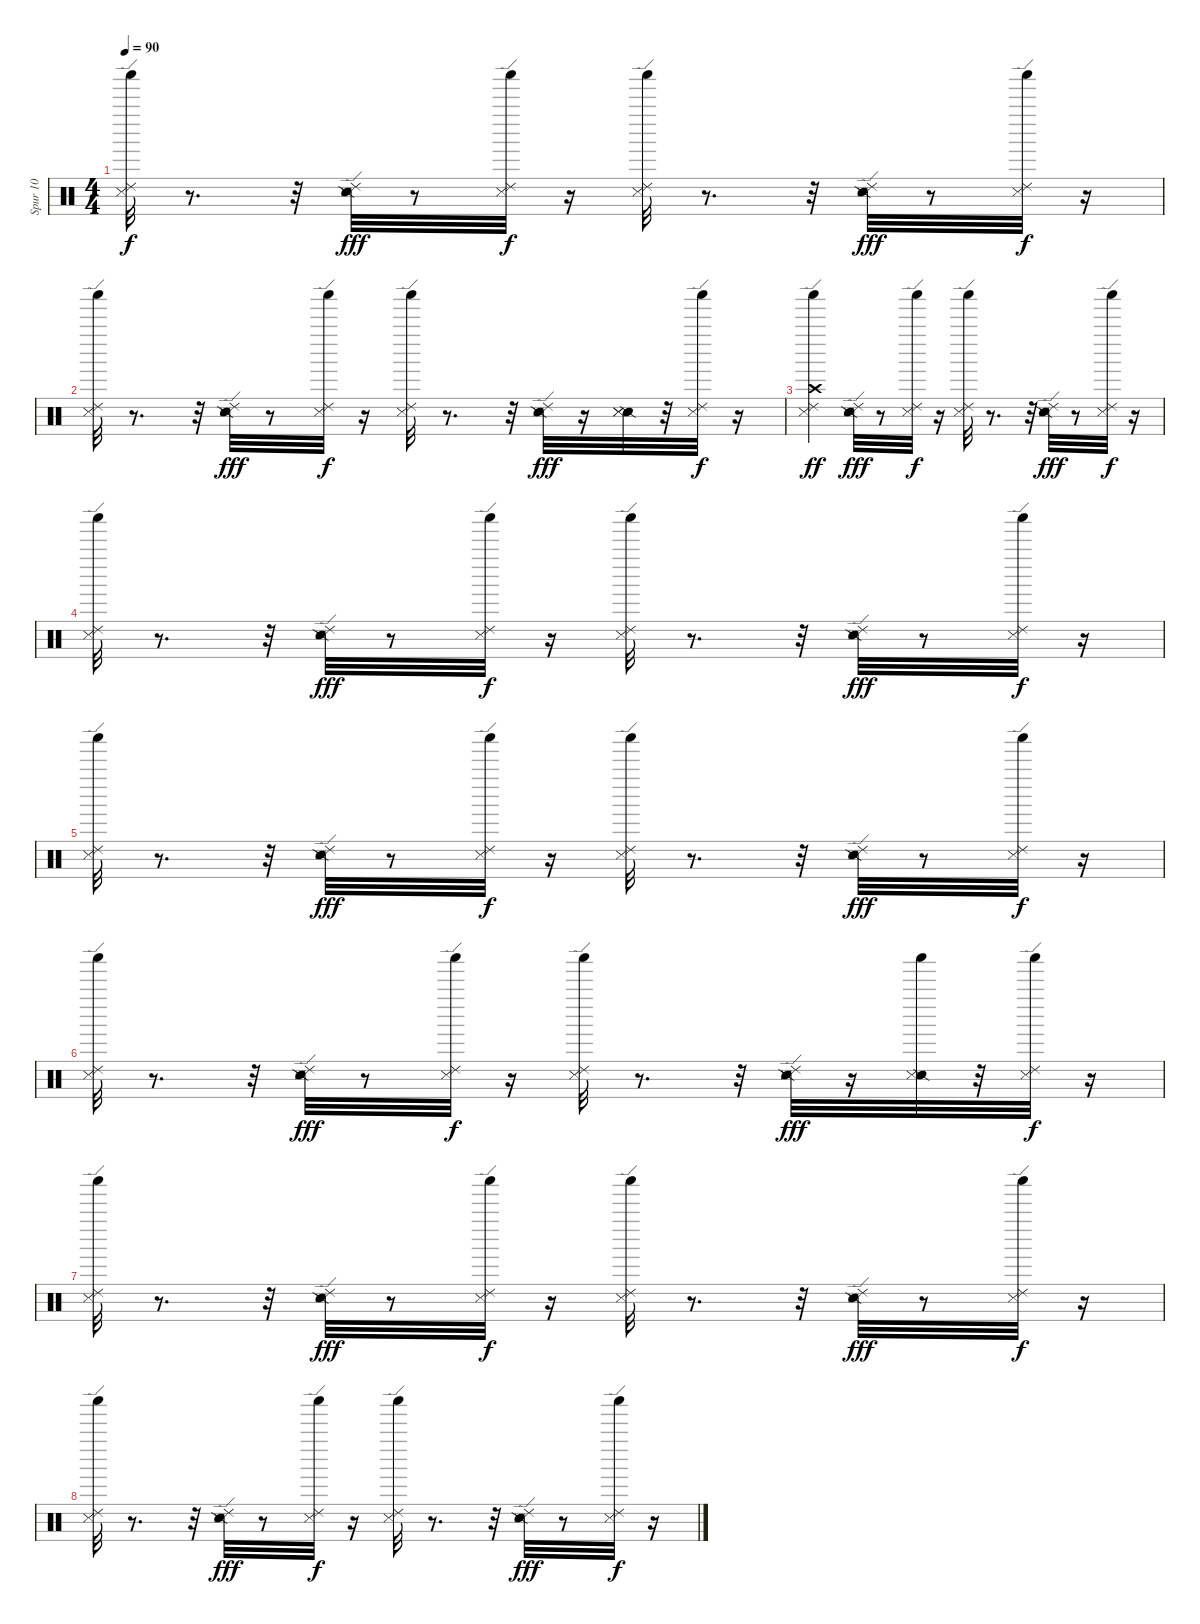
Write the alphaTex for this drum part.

\track ("Spur 10" "Spur 10") {instrument percussion}
\staff {score}
\articulation defaults
\ts (4 4)
\tempo 90
\clef neutral
\ks c
("Shaker (hit)" "Ride (edge) 2" "Metronome (hit)").32{dy f} r.8{d} r.32 ("Ride (edge) 2" "Snare (side stick) 2" "Snare (side stick) 3").32{dy fff} r.8 ("Ride (edge) 2" "Shaker (hit)" "Metronome (hit)").32{dy f} r.16 ("Shaker (hit)" "Ride (edge) 2" "Metronome (hit)").32 r.8{d} r.32 ("Ride (edge) 2" "Snare (side stick) 2" "Snare (side stick) 3").32{dy fff} r.8 ("Shaker (hit)" "Ride (edge) 2" "Metronome (hit)").32{dy f} r.16 |
("Ride (edge) 2" "Shaker (hit)" "Metronome (hit)").32 r.8{d} r.32 ("Ride (edge) 2" "Snare (side stick) 2" "Snare (side stick) 3").32{dy fff} r.8 ("Shaker (hit)" "Ride (edge) 2" "Metronome (hit)").32{dy f} r.16 ("Ride (edge) 2" "Shaker (hit)" "Metronome (hit)").32 r.8{d} r.32 ("Ride (edge) 2" "Snare (side stick) 2" "Snare (side stick) 3").32{dy fff} r.16 ("Snare (side stick) 2" "Metronome (hit)" "Snare (side stick) 3").32 r.32 ("Shaker (hit)" "Ride (edge) 2" "Metronome (hit)").32{dy f} r.16 |
("Shaker (hit)" "Ride (edge) 2" "Metronome (hit)" "Crash high (hit)").4{dy ff} ("Ride (edge) 2" "Snare (side stick) 2" "Snare (side stick) 3").32{dy fff} r.8 ("Ride (edge) 2" "Shaker (hit)" "Metronome (hit)").32{dy f} r.16 ("Ride (edge) 2" "Shaker (hit)" "Metronome (hit)").32 r.8{d} r.32 ("Ride (edge) 2" "Snare (side stick) 2" "Snare (side stick) 3").32{dy fff} r.8 ("Shaker (hit)" "Ride (edge) 2" "Metronome (hit)").32{dy f} r.16 |
("Shaker (hit)" "Ride (edge) 2" "Metronome (hit)").32 r.8{d} r.32 ("Ride (edge) 2" "Snare (side stick) 2" "Snare (side stick) 3").32{dy fff} r.8 ("Shaker (hit)" "Ride (edge) 2" "Metronome (hit)").32{dy f} r.16 ("Ride (edge) 2" "Shaker (hit)" "Metronome (hit)").32 r.8{d} r.32 ("Ride (edge) 2" "Snare (side stick) 2" "Snare (side stick) 3").32{dy fff} r.8 ("Shaker (hit)" "Ride (edge) 2" "Metronome (hit)").32{dy f} r.16 |
("Shaker (hit)" "Ride (edge) 2" "Metronome (hit)").32 r.8{d} r.32 ("Ride (edge) 2" "Snare (side stick) 2" "Snare (side stick) 3").32{dy fff} r.8 ("Shaker (hit)" "Ride (edge) 2" "Metronome (hit)").32{dy f} r.16 ("Ride (edge) 2" "Shaker (hit)" "Metronome (hit)").32 r.8{d} r.32 ("Ride (edge) 2" "Snare (side stick) 2" "Snare (side stick) 3").32{dy fff} r.8 ("Shaker (hit)" "Ride (edge) 2" "Metronome (hit)").32{dy f} r.16 |
("Shaker (hit)" "Ride (edge) 2" "Metronome (hit)").32 r.8{d} r.32 ("Ride (edge) 2" "Snare (side stick) 2" "Snare (side stick) 3").32{dy fff} r.8 ("Shaker (hit)" "Ride (edge) 2" "Metronome (hit)").32{dy f} r.16 ("Ride (edge) 2" "Shaker (hit)" "Metronome (hit)").32 r.8{d} r.32 ("Ride (edge) 2" "Snare (side stick) 2" "Metronome (hit)" "Snare (side stick) 3").32{dy fff} r.16 ("Shaker (hit)" "Snare (side stick) 2" "Snare (side stick) 3").32 r.32 ("Shaker (hit)" "Ride (edge) 2" "Metronome (hit)").32{dy f} r.16 |
("Ride (edge) 2" "Shaker (hit)" "Metronome (hit)").32 r.8{d} r.32 ("Ride (edge) 2" "Snare (side stick) 2" "Snare (side stick) 3").32{dy fff} r.8 ("Shaker (hit)" "Ride (edge) 2" "Metronome (hit)").32{dy f} r.16 ("Ride (edge) 2" "Shaker (hit)" "Metronome (hit)").32 r.8{d} r.32 ("Ride (edge) 2" "Snare (side stick) 2" "Snare (side stick) 3").32{dy fff} r.8 ("Shaker (hit)" "Ride (edge) 2" "Metronome (hit)").32{dy f} r.16 |
("Ride (edge) 2" "Shaker (hit)" "Metronome (hit)").32 r.8{d} r.32 ("Ride (edge) 2" "Snare (side stick) 2" "Snare (side stick) 3").32{dy fff} r.8 ("Shaker (hit)" "Ride (edge) 2" "Metronome (hit)").32{dy f} r.16 ("Shaker (hit)" "Ride (edge) 2" "Metronome (hit)").32 r.8{d} r.32 ("Ride (edge) 2" "Snare (side stick) 2" "Snare (side stick) 3").32{dy fff} r.8 ("Ride (edge) 2" "Shaker (hit)" "Metronome (hit)").32{dy f} r.16
